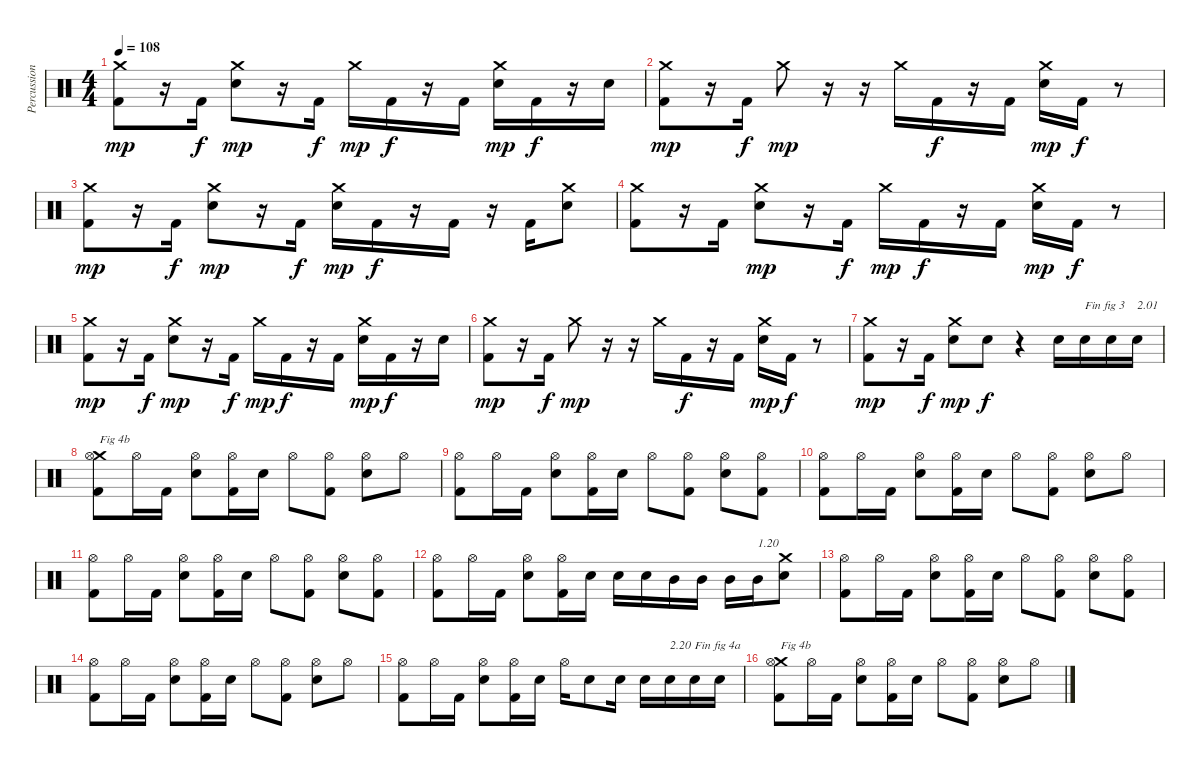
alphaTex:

\track ("Percussions" "Percussion") {instrument percussion}
\staff {score}
\articulation defaults
\ts (4 4)
\tempo 108
\clef neutral
\ks c
("Kick (hit) 2" "Crash medium (hit)").8{dy mp} r.16 "Kick (hit) 2".16{dy f} ("Electric Snare (hit)" "Crash medium (hit)").8{dy mp} r.16 "Kick (hit) 2".16{dy f} "Crash medium (hit)".16{dy mp} "Kick (hit) 2".16{dy f} r.16 "Kick (hit) 2".16 ("Electric Snare (hit)" "Crash medium (hit)").16{dy mp} "Kick (hit) 2".16{dy f} r.16 "Electric Snare (hit)".16 |
("Kick (hit) 2" "Crash medium (hit)").8{dy mp} r.16 "Kick (hit) 2".16{dy f} "Crash medium (hit)".8{dy mp} r.16 r.16 "Crash medium (hit)".16 "Kick (hit) 2".16{dy f} r.16 "Kick (hit) 2".16 ("Electric Snare (hit)" "Crash medium (hit)").16{dy mp} "Kick (hit) 2".16{dy f} r.8 |
("Kick (hit) 2" "Crash medium (hit)").8{dy mp} r.16 "Kick (hit) 2".16{dy f} ("Electric Snare (hit)" "Crash medium (hit)").8{dy mp} r.16 "Kick (hit) 2".16{dy f} ("Electric Snare (hit)" "Crash medium (hit)").16{dy mp} "Kick (hit) 2".16{dy f} r.16 "Kick (hit) 2".16 r.16 "Kick (hit) 2".16 ("Electric Snare (hit)" "Crash medium (hit)").8 |
("Kick (hit) 2" "Crash medium (hit)").8 r.16 "Kick (hit) 2".16 ("Electric Snare (hit)" "Crash medium (hit)").8{dy mp} r.16 "Kick (hit) 2".16{dy f} "Crash medium (hit)".16{dy mp} "Kick (hit) 2".16{dy f} r.16 "Kick (hit) 2".16 ("Electric Snare (hit)" "Crash medium (hit)").16{dy mp} "Kick (hit) 2".16{dy f} r.8 |
("Kick (hit) 2" "Crash medium (hit)").8{dy mp} r.16 "Kick (hit) 2".16{dy f} ("Electric Snare (hit)" "Crash medium (hit)").8{dy mp} r.16 "Kick (hit) 2".16{dy f} "Crash medium (hit)".16{dy mp} "Kick (hit) 2".16{dy f} r.16 "Kick (hit) 2".16 ("Electric Snare (hit)" "Crash medium (hit)").16{dy mp} "Kick (hit) 2".16{dy f} r.16 "Electric Snare (hit)".16 |
("Kick (hit) 2" "Crash medium (hit)").8{dy mp} r.16 "Kick (hit) 2".16{dy f} "Crash medium (hit)".8{dy mp} r.16 r.16 "Crash medium (hit)".16 "Kick (hit) 2".16{dy f} r.16 "Kick (hit) 2".16 ("Electric Snare (hit)" "Crash medium (hit)").16{dy mp} "Kick (hit) 2".16{dy f} r.8 |
("Kick (hit) 2" "Crash medium (hit)").8{dy mp} r.16 "Kick (hit) 2".16{dy f} ("Electric Snare (hit)" "Crash medium (hit)").8{dy mp} "Electric Snare (hit)".8{dy f} r.4 "Electric Snare (hit)".16 "Electric Snare (hit)".16{txt "Fin fig 3"} "Electric Snare (hit)".16 "Electric Snare (hit)".16{txt "2.01"} |
("Kick (hit) 2" "Crash medium (hit)" "Hi-Hat (open)").8{txt "Fig 4b"} "Hi-Hat (open)".16 "Kick (hit) 2".16 ("Electric Snare (hit)" "Hi-Hat (open)").8 ("Kick (hit) 2" "Hi-Hat (open)").16 "Electric Snare (hit)".16 "Hi-Hat (open)".8 ("Kick (hit) 2" "Hi-Hat (open)").8 ("Electric Snare (hit)" "Hi-Hat (open)").8 "Hi-Hat (open)".8 |
("Kick (hit) 2" "Hi-Hat (open)").8 "Hi-Hat (open)".16 "Kick (hit) 2".16 ("Electric Snare (hit)" "Hi-Hat (open)").8 ("Kick (hit) 2" "Hi-Hat (open)").16 "Electric Snare (hit)".16 "Hi-Hat (open)".8 ("Kick (hit) 2" "Hi-Hat (open)").8 ("Electric Snare (hit)" "Hi-Hat (open)").8 ("Kick (hit) 2" "Hi-Hat (open)").8 |
("Kick (hit) 2" "Hi-Hat (open)").8 "Hi-Hat (open)".16 "Kick (hit) 2".16 ("Electric Snare (hit)" "Hi-Hat (open)").8 ("Kick (hit) 2" "Hi-Hat (open)").16 "Electric Snare (hit)".16 "Hi-Hat (open)".8 ("Kick (hit) 2" "Hi-Hat (open)").8 ("Electric Snare (hit)" "Hi-Hat (open)").8 "Hi-Hat (open)".8 |
("Kick (hit) 2" "Hi-Hat (open)").8 "Hi-Hat (open)".16 "Kick (hit) 2".16 ("Electric Snare (hit)" "Hi-Hat (open)").8 ("Kick (hit) 2" "Hi-Hat (open)").16 "Electric Snare (hit)".16 "Hi-Hat (open)".8 ("Kick (hit) 2" "Hi-Hat (open)").8 ("Electric Snare (hit)" "Hi-Hat (open)").8 ("Kick (hit) 2" "Hi-Hat (open)").8 |
("Kick (hit) 2" "Hi-Hat (open)").8 "Hi-Hat (open)".16 "Kick (hit) 2".16 ("Electric Snare (hit)" "Hi-Hat (open)").8 ("Kick (hit) 2" "Hi-Hat (open)").16 "Electric Snare (hit)".16 "Electric Snare (hit)".16 "Electric Snare (hit)".16 "Mid Tom (hit)".16 "Mid Tom (hit)".16 "Mid Tom (hit)".16 "Mid Tom (hit)".16{txt "1.20"} ("Electric Snare (hit)" "Crash medium (hit)").8 |
("Kick (hit) 2" "Hi-Hat (open)").8 "Hi-Hat (open)".16 "Kick (hit) 2".16 ("Electric Snare (hit)" "Hi-Hat (open)").8 ("Kick (hit) 2" "Hi-Hat (open)").16 "Electric Snare (hit)".16 "Hi-Hat (open)".8 ("Kick (hit) 2" "Hi-Hat (open)").8 ("Electric Snare (hit)" "Hi-Hat (open)").8 ("Kick (hit) 2" "Hi-Hat (open)").8 |
("Kick (hit) 2" "Hi-Hat (open)").8 "Hi-Hat (open)".16 "Kick (hit) 2".16 ("Electric Snare (hit)" "Hi-Hat (open)").8 ("Kick (hit) 2" "Hi-Hat (open)").16 "Electric Snare (hit)".16 "Hi-Hat (open)".8 ("Kick (hit) 2" "Hi-Hat (open)").8 ("Electric Snare (hit)" "Hi-Hat (open)").8 "Hi-Hat (open)".8 |
("Kick (hit) 2" "Hi-Hat (open)").8 "Hi-Hat (open)".16 "Kick (hit) 2".16 ("Electric Snare (hit)" "Hi-Hat (open)").8 ("Kick (hit) 2" "Hi-Hat (open)").16 "Electric Snare (hit)".16 "Hi-Hat (open)".16 "Electric Snare (hit)".8 "Electric Snare (hit)".16 "Electric Snare (hit)".16 "Electric Snare (hit)".16{txt "2.20"} "Electric Snare (hit)".16{txt "Fin fig 4a"} "Electric Snare (hit)".16 |
("Kick (hit) 2" "Crash medium (hit)" "Hi-Hat (open)").8{txt "Fig 4b"} "Hi-Hat (open)".16 "Kick (hit) 2".16 ("Electric Snare (hit)" "Hi-Hat (open)").8 ("Kick (hit) 2" "Hi-Hat (open)").16 "Electric Snare (hit)".16 "Hi-Hat (open)".8 ("Kick (hit) 2" "Hi-Hat (open)").8 ("Electric Snare (hit)" "Hi-Hat (open)").8 "Hi-Hat (open)".8
